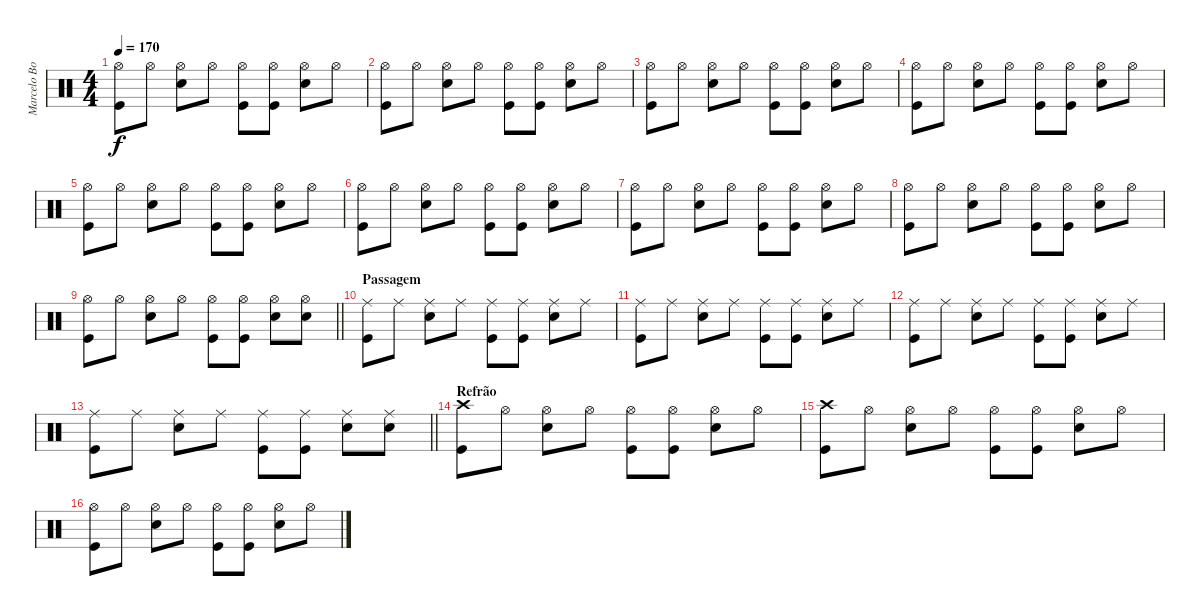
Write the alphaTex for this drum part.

\track ("Marcelo Bonfá" "Marcelo Bo") {instrument percussion}
\staff {score}
\articulation defaults
\ts (4 4)
\tempo 170
\clef neutral
\ks c
("Hi-Hat (open)" "Kick (hit)").8{dy f} "Hi-Hat (open)".8 ("Hi-Hat (open)" "Snare (hit) 2").8 "Hi-Hat (open)".8 ("Hi-Hat (open)" "Kick (hit)").8 ("Hi-Hat (open)" "Kick (hit)").8 ("Hi-Hat (open)" "Snare (hit) 2").8 "Hi-Hat (open)".8 |
("Hi-Hat (open)" "Kick (hit)").8 "Hi-Hat (open)".8 ("Hi-Hat (open)" "Snare (hit) 2").8 "Hi-Hat (open)".8 ("Hi-Hat (open)" "Kick (hit)").8 ("Hi-Hat (open)" "Kick (hit)").8 ("Hi-Hat (open)" "Snare (hit) 2").8 "Hi-Hat (open)".8 |
("Hi-Hat (open)" "Kick (hit)").8 "Hi-Hat (open)".8 ("Hi-Hat (open)" "Snare (hit) 2").8 "Hi-Hat (open)".8 ("Hi-Hat (open)" "Kick (hit)").8 ("Hi-Hat (open)" "Kick (hit)").8 ("Hi-Hat (open)" "Snare (hit) 2").8 "Hi-Hat (open)".8 |
("Hi-Hat (open)" "Kick (hit)").8 "Hi-Hat (open)".8 ("Hi-Hat (open)" "Snare (hit) 2").8 "Hi-Hat (open)".8 ("Hi-Hat (open)" "Kick (hit)").8 ("Hi-Hat (open)" "Kick (hit)").8 ("Hi-Hat (open)" "Snare (hit) 2").8 "Hi-Hat (open)".8 |
("Hi-Hat (open)" "Kick (hit)").8 "Hi-Hat (open)".8 ("Hi-Hat (open)" "Snare (hit) 2").8 "Hi-Hat (open)".8 ("Hi-Hat (open)" "Kick (hit)").8 ("Hi-Hat (open)" "Kick (hit)").8 ("Hi-Hat (open)" "Snare (hit) 2").8 "Hi-Hat (open)".8 |
("Hi-Hat (open)" "Kick (hit)").8 "Hi-Hat (open)".8 ("Hi-Hat (open)" "Snare (hit) 2").8 "Hi-Hat (open)".8 ("Hi-Hat (open)" "Kick (hit)").8 ("Hi-Hat (open)" "Kick (hit)").8 ("Hi-Hat (open)" "Snare (hit) 2").8 "Hi-Hat (open)".8 |
("Hi-Hat (open)" "Kick (hit)").8 "Hi-Hat (open)".8 ("Hi-Hat (open)" "Snare (hit) 2").8 "Hi-Hat (open)".8 ("Hi-Hat (open)" "Kick (hit)").8 ("Hi-Hat (open)" "Kick (hit)").8 ("Hi-Hat (open)" "Snare (hit) 2").8 "Hi-Hat (open)".8 |
("Hi-Hat (open)" "Kick (hit)").8 "Hi-Hat (open)".8 ("Hi-Hat (open)" "Snare (hit) 2").8 "Hi-Hat (open)".8 ("Hi-Hat (open)" "Kick (hit)").8 ("Hi-Hat (open)" "Kick (hit)").8 ("Hi-Hat (open)" "Snare (hit) 2").8 "Hi-Hat (open)".8 |
\barLineRight lightlight
("Hi-Hat (open)" "Kick (hit)").8 "Hi-Hat (open)".8 ("Hi-Hat (open)" "Snare (hit) 2").8 "Hi-Hat (open)".8 ("Hi-Hat (open)" "Kick (hit)").8 ("Hi-Hat (open)" "Kick (hit)").8 ("Hi-Hat (open)" "Snare (hit) 2").8 ("Hi-Hat (open)" "Snare (hit) 2").8 |
\section ("" "Passagem")
("Ride (middle)" "Kick (hit)").8 "Ride (middle)".8 ("Ride (middle)" "Snare (hit) 2").8 "Ride (middle)".8 ("Ride (middle)" "Kick (hit)").8 ("Ride (middle)" "Kick (hit)").8 ("Ride (middle)" "Snare (hit) 2").8 "Ride (middle)".8 |
("Ride (middle)" "Kick (hit)").8 "Ride (middle)".8 ("Ride (middle)" "Snare (hit) 2").8 "Ride (middle)".8 ("Ride (middle)" "Kick (hit)").8 ("Ride (middle)" "Kick (hit)").8 ("Ride (middle)" "Snare (hit) 2").8 "Ride (middle)".8 |
("Ride (middle)" "Kick (hit)").8 "Ride (middle)".8 ("Ride (middle)" "Snare (hit) 2").8 "Ride (middle)".8 ("Ride (middle)" "Kick (hit)").8 ("Ride (middle)" "Kick (hit)").8 ("Ride (middle)" "Snare (hit) 2").8 "Ride (middle)".8 |
\barLineRight lightlight
("Ride (middle)" "Kick (hit)").8 "Ride (middle)".8 ("Ride (middle)" "Snare (hit) 2").8 "Ride (middle)".8 ("Ride (middle)" "Kick (hit)").8 ("Ride (middle)" "Kick (hit)").8 ("Ride (middle)" "Snare (hit) 2").8 ("Ride (middle)" "Snare (hit) 2").8 |
\section ("" "Refrão")
("Crash high (hit)" "Kick (hit)").8 "Hi-Hat (open)".8 ("Hi-Hat (open)" "Snare (hit) 2").8 "Hi-Hat (open)".8 ("Hi-Hat (open)" "Kick (hit)").8 ("Hi-Hat (open)" "Kick (hit)").8 ("Hi-Hat (open)" "Snare (hit) 2").8 "Hi-Hat (open)".8 |
("Crash high (hit)" "Kick (hit)").8 "Hi-Hat (open)".8 ("Hi-Hat (open)" "Snare (hit) 2").8 "Hi-Hat (open)".8 ("Hi-Hat (open)" "Kick (hit)").8 ("Hi-Hat (open)" "Kick (hit)").8 ("Hi-Hat (open)" "Snare (hit) 2").8 "Hi-Hat (open)".8 |
("Hi-Hat (open)" "Kick (hit)").8 "Hi-Hat (open)".8 ("Hi-Hat (open)" "Snare (hit) 2").8 "Hi-Hat (open)".8 ("Hi-Hat (open)" "Kick (hit)").8 ("Hi-Hat (open)" "Kick (hit)").8 ("Hi-Hat (open)" "Snare (hit) 2").8 "Hi-Hat (open)".8
